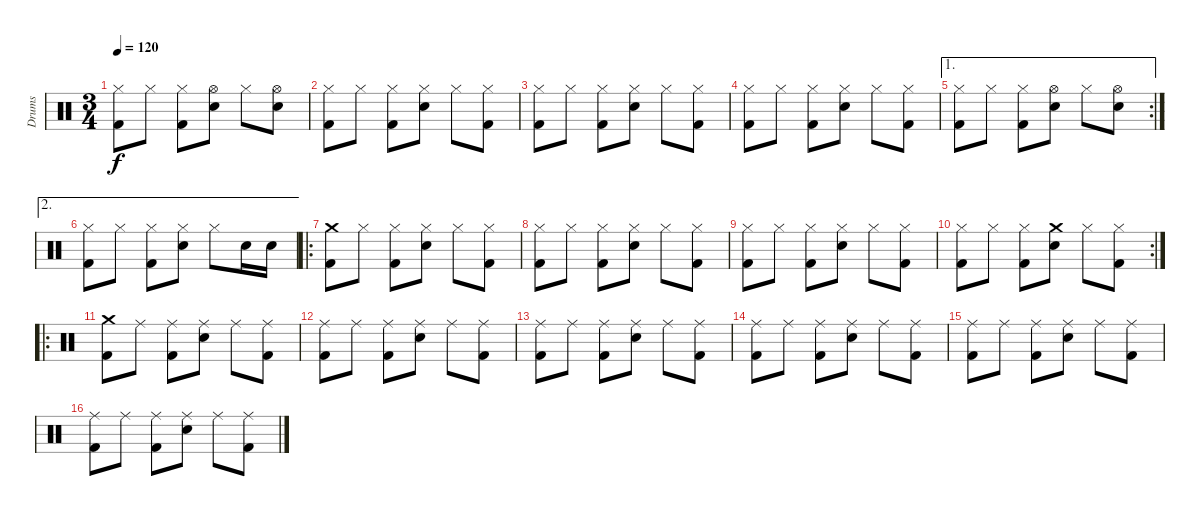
\track ("Drums" "Drums") {instrument percussion}
\staff {score}
\articulation defaults
\ts (3 4)
\tempo 120
\clef neutral
\ks c
("Hi-Hat (closed)" "Kick (hit) 2").8{dy f} "Hi-Hat (closed)".8 ("Hi-Hat (closed)" "Kick (hit) 2").8 ("Hi-Hat (open)" "Snare (hit) 2").8 "Hi-Hat (closed)".8 ("Hi-Hat (open)" "Snare (hit) 2").8 |
("Hi-Hat (closed)" "Kick (hit) 2").8 "Hi-Hat (closed)".8 ("Hi-Hat (closed)" "Kick (hit) 2").8 ("Hi-Hat (closed)" "Snare (hit) 2").8 "Hi-Hat (closed)".8 ("Hi-Hat (closed)" "Kick (hit) 2").8 |
("Hi-Hat (closed)" "Kick (hit) 2").8 "Hi-Hat (closed)".8 ("Hi-Hat (closed)" "Kick (hit) 2").8 ("Hi-Hat (closed)" "Snare (hit) 2").8 "Hi-Hat (closed)".8 ("Hi-Hat (closed)" "Kick (hit) 2").8 |
("Hi-Hat (closed)" "Kick (hit) 2").8 "Hi-Hat (closed)".8 ("Hi-Hat (closed)" "Kick (hit) 2").8 ("Hi-Hat (closed)" "Snare (hit) 2").8 "Hi-Hat (closed)".8 ("Hi-Hat (closed)" "Kick (hit) 2").8 |
\ae 1
\rc 2
("Hi-Hat (closed)" "Kick (hit) 2").8 "Hi-Hat (closed)".8 ("Hi-Hat (closed)" "Kick (hit) 2").8 ("Hi-Hat (open)" "Snare (hit) 2").8 "Hi-Hat (closed)".8 ("Hi-Hat (open)" "Snare (hit) 2").8 |
\ae 2
("Hi-Hat (closed)" "Kick (hit) 2").8 "Hi-Hat (closed)".8 ("Hi-Hat (closed)" "Kick (hit) 2").8 ("Hi-Hat (closed)" "Snare (hit) 2").8 "Hi-Hat (closed)".8 "Snare (hit) 2".16 "Snare (hit) 2".16 |
\ro
("Crash medium (hit)" "Kick (hit) 2").8 "Hi-Hat (closed)".8 ("Hi-Hat (closed)" "Kick (hit) 2").8 ("Hi-Hat (closed)" "Snare (hit) 2").8 "Hi-Hat (closed)".8 ("Hi-Hat (closed)" "Kick (hit) 2").8 |
("Hi-Hat (closed)" "Kick (hit) 2").8 "Hi-Hat (closed)".8 ("Hi-Hat (closed)" "Kick (hit) 2").8 ("Hi-Hat (closed)" "Snare (hit) 2").8 "Hi-Hat (closed)".8 ("Hi-Hat (closed)" "Kick (hit) 2").8 |
("Hi-Hat (closed)" "Kick (hit) 2").8 "Hi-Hat (closed)".8 ("Hi-Hat (closed)" "Kick (hit) 2").8 ("Hi-Hat (closed)" "Snare (hit) 2").8 "Hi-Hat (closed)".8 ("Hi-Hat (closed)" "Kick (hit) 2").8 |
\rc 2
("Hi-Hat (closed)" "Kick (hit) 2").8 "Hi-Hat (closed)".8 ("Hi-Hat (closed)" "Kick (hit) 2").8 ("Crash medium (hit)" "Snare (hit) 2").8 "Hi-Hat (closed)".8 ("Hi-Hat (closed)" "Kick (hit) 2").8 |
\ro
("Crash medium (hit)" "Kick (hit) 2").8 "Ride (middle)".8 ("Ride (middle)" "Kick (hit) 2").8 ("Ride (middle)" "Snare (hit) 2").8 "Ride (middle)".8 ("Ride (middle)" "Kick (hit) 2").8 |
("Ride (middle)" "Kick (hit) 2").8 "Ride (middle)".8 ("Ride (middle)" "Kick (hit) 2").8 ("Ride (middle)" "Snare (hit) 2").8 "Ride (middle)".8 ("Ride (middle)" "Kick (hit) 2").8 |
("Ride (middle)" "Kick (hit) 2").8 "Ride (middle)".8 ("Ride (middle)" "Kick (hit) 2").8 ("Ride (middle)" "Snare (hit) 2").8 "Ride (middle)".8 ("Ride (middle)" "Kick (hit) 2").8 |
("Ride (middle)" "Kick (hit) 2").8 "Ride (middle)".8 ("Ride (middle)" "Kick (hit) 2").8 ("Ride (middle)" "Snare (hit) 2").8 "Ride (middle)".8 ("Ride (middle)" "Kick (hit) 2").8 |
("Ride (middle)" "Kick (hit) 2").8 "Ride (middle)".8 ("Ride (middle)" "Kick (hit) 2").8 ("Ride (middle)" "Snare (hit) 2").8 "Ride (middle)".8 ("Ride (middle)" "Kick (hit) 2").8 |
("Ride (middle)" "Kick (hit) 2").8 "Ride (middle)".8 ("Ride (middle)" "Kick (hit) 2").8 ("Ride (middle)" "Snare (hit) 2").8 "Ride (middle)".8 ("Ride (middle)" "Kick (hit) 2").8
